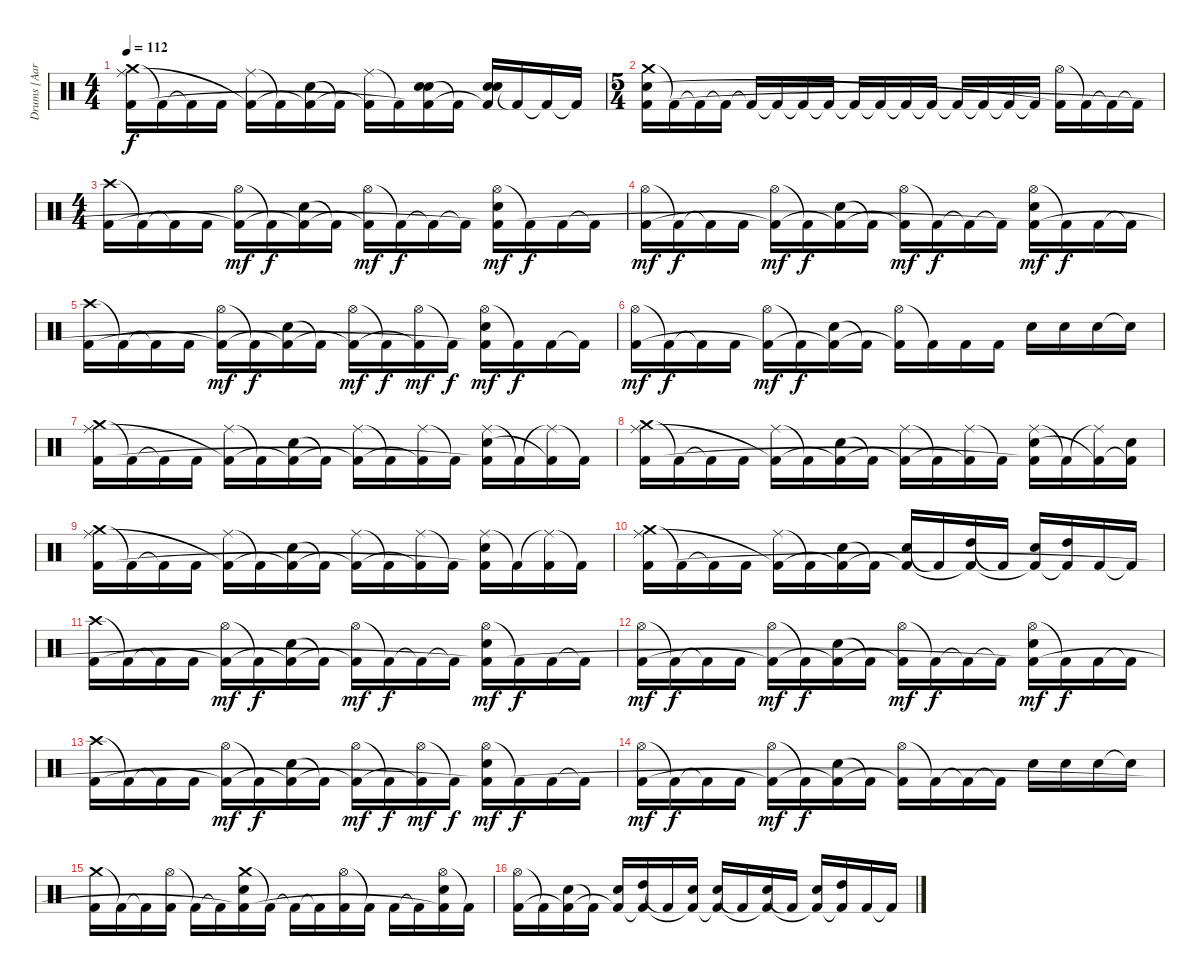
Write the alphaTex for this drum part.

\track ("Drums [Aaron Harris]" "Drums [Aar") {instrument percussion}
\staff {score}
\articulation defaults
\ts (4 4)
\tempo 112
\clef neutral
\ks c
("Crash medium (hit)" "Ride (middle)" "Kick (hit) 2").16{dy f} "Kick (hit) 2"{t}.16 "Kick (hit) 2"{t}.16 "Kick (hit) 2".16 ("Ride (middle)" "Kick (hit) 2"{t}).16 "Kick (hit) 2"{t}.16 ("Electric Snare (hit)" "Kick (hit) 2"{t}).16 "Kick (hit) 2"{t}.16 ("Ride (middle)" "Kick (hit) 2"{t}).16 "Kick (hit) 2"{t}.16 ("Electric Snare (hit)" "Electric Snare (hit)" "Kick (hit) 2"{t}).16 "Kick (hit) 2"{t}.16 ("Electric Snare (hit)" "Electric Snare (hit)" "Kick (hit) 2"{t}).16 "Kick (hit) 2"{t}.16 "Kick (hit) 2"{t}.16 "Kick (hit) 2"{t}.16 |
\ts (5 4)
("Crash medium (hit)" "Electric Snare (hit)" "Kick (hit) 2").16 "Kick (hit) 2"{t}.16 "Kick (hit) 2"{t}.16 "Kick (hit) 2"{t}.16 "Kick (hit) 2"{t}.16 "Kick (hit) 2"{t}.16 "Kick (hit) 2"{t}.16 "Kick (hit) 2"{t}.16 "Kick (hit) 2"{t}.16 "Kick (hit) 2"{t}.16 "Kick (hit) 2"{t}.16 "Kick (hit) 2"{t}.16 "Kick (hit) 2"{t}.16 "Kick (hit) 2"{t}.16 "Kick (hit) 2"{t}.16 "Kick (hit) 2"{t}.16 ("Hi-Hat (open)" "Kick (hit) 2"{t}).16 "Kick (hit) 2"{t}.16 "Kick (hit) 2"{t}.16 "Kick (hit) 2"{t}.16 |
\ts (4 4)
("Crash high (hit)" "Kick (hit) 2").16 "Kick (hit) 2"{t}.16 "Kick (hit) 2"{t}.16 "Kick (hit) 2".16 ("Hi-Hat (open)" "Kick (hit) 2"{t}).16{dy mf} "Kick (hit) 2"{t}.16{dy f} ("Electric Snare (hit)" "Kick (hit) 2"{t}).16 "Kick (hit) 2"{t}.16 ("Hi-Hat (open)" "Kick (hit) 2"{t}).16{dy mf} "Kick (hit) 2"{t}.16{dy f} "Kick (hit) 2"{t}.16 "Kick (hit) 2"{t}.16 ("Hi-Hat (open)" "Electric Snare (hit)" "Kick (hit) 2"{t}).16{dy mf} "Kick (hit) 2"{t}.16{dy f} "Kick (hit) 2".16 "Kick (hit) 2"{t}.16 |
("Hi-Hat (open)" "Kick (hit) 2").16{dy mf} "Kick (hit) 2"{t}.16{dy f} "Kick (hit) 2"{t}.16 "Kick (hit) 2".16 ("Hi-Hat (open)" "Kick (hit) 2"{t}).16{dy mf} "Kick (hit) 2"{t}.16{dy f} ("Electric Snare (hit)" "Kick (hit) 2"{t}).16 "Kick (hit) 2"{t}.16 ("Hi-Hat (open)" "Kick (hit) 2"{t}).16{dy mf} "Kick (hit) 2"{t}.16{dy f} "Kick (hit) 2"{t}.16 "Kick (hit) 2"{t}.16 ("Hi-Hat (open)" "Electric Snare (hit)" "Kick (hit) 2"{t}).16{dy mf} "Kick (hit) 2"{t}.16{dy f} "Kick (hit) 2".16 "Kick (hit) 2"{t}.16 |
("Crash high (hit)" "Kick (hit) 2").16 "Kick (hit) 2"{t}.16 "Kick (hit) 2"{t}.16 "Kick (hit) 2".16 ("Hi-Hat (open)" "Kick (hit) 2"{t}).16{dy mf} "Kick (hit) 2"{t}.16{dy f} ("Electric Snare (hit)" "Kick (hit) 2"{t}).16 "Kick (hit) 2"{t}.16 ("Hi-Hat (open)" "Kick (hit) 2"{t}).16{dy mf} "Kick (hit) 2"{t}.16{dy f} ("Hi-Hat (open)" "Kick (hit) 2"{t}).16{dy mf} "Kick (hit) 2"{t}.16{dy f} ("Hi-Hat (open)" "Electric Snare (hit)" "Kick (hit) 2"{t}).16{dy mf} "Kick (hit) 2"{t}.16{dy f} "Kick (hit) 2".16 "Kick (hit) 2"{t}.16 |
("Hi-Hat (open)" "Kick (hit) 2").16{dy mf} "Kick (hit) 2"{t}.16{dy f} "Kick (hit) 2"{t}.16 "Kick (hit) 2".16 ("Hi-Hat (open)" "Kick (hit) 2"{t}).16{dy mf} "Kick (hit) 2"{t}.16{dy f} ("Electric Snare (hit)" "Kick (hit) 2"{t}).16 "Kick (hit) 2"{t}.16 ("Hi-Hat (open)" "Kick (hit) 2"{t}).16 "Kick (hit) 2"{t}.16 "Kick (hit) 2".16 "Kick (hit) 2".16 "Electric Snare (hit)".16 "Electric Snare (hit)".16 "Electric Snare (hit)".16 "Electric Snare (hit)"{t}.16 |
("Crash medium (hit)" "Ride (middle)" "Kick (hit) 2").16 "Kick (hit) 2"{t}.16 "Kick (hit) 2"{t}.16 "Kick (hit) 2".16 ("Ride (middle)" "Kick (hit) 2"{t}).16 "Kick (hit) 2"{t}.16 ("Electric Snare (hit)" "Kick (hit) 2"{t}).16 "Kick (hit) 2"{t}.16 ("Ride (middle)" "Kick (hit) 2"{t}).16 "Kick (hit) 2"{t}.16 ("Ride (middle)" "Kick (hit) 2"{t}).16 "Kick (hit) 2"{t}.16 ("Ride (middle)" "Electric Snare (hit)" "Kick (hit) 2"{t}).16 "Kick (hit) 2"{t}.16 ("Ride (middle)"{t} "Kick (hit) 2"{t}).16 "Kick (hit) 2"{t}.16 |
("Crash medium (hit)" "Ride (middle)" "Kick (hit) 2").16 "Kick (hit) 2"{t}.16 "Kick (hit) 2"{t}.16 "Kick (hit) 2".16 ("Ride (middle)" "Kick (hit) 2"{t}).16 "Kick (hit) 2"{t}.16 ("Electric Snare (hit)" "Kick (hit) 2"{t}).16 "Kick (hit) 2"{t}.16 ("Ride (middle)" "Kick (hit) 2"{t}).16 "Kick (hit) 2"{t}.16 ("Ride (middle)" "Kick (hit) 2"{t}).16 "Kick (hit) 2"{t}.16 ("Ride (middle)" "Electric Snare (hit)" "Kick (hit) 2"{t}).16 "Kick (hit) 2"{t}.16 ("Ride (middle)"{t} "Kick (hit) 2"{t}).16 ("Electric Snare (hit)" "Kick (hit) 2"{t}).16 |
("Crash medium (hit)" "Ride (middle)" "Kick (hit) 2").16 "Kick (hit) 2"{t}.16 "Kick (hit) 2"{t}.16 "Kick (hit) 2".16 ("Ride (middle)" "Kick (hit) 2"{t}).16 "Kick (hit) 2"{t}.16 ("Electric Snare (hit)" "Kick (hit) 2"{t}).16 "Kick (hit) 2"{t}.16 ("Ride (middle)" "Kick (hit) 2"{t}).16 "Kick (hit) 2"{t}.16 ("Ride (middle)" "Kick (hit) 2"{t}).16 "Kick (hit) 2"{t}.16 ("Ride (middle)" "Electric Snare (hit)" "Kick (hit) 2"{t}).16 "Kick (hit) 2"{t}.16 ("Ride (middle)"{t} "Kick (hit) 2").16 "Kick (hit) 2"{t}.16 |
("Crash medium (hit)" "Ride (middle)" "Kick (hit) 2").16 "Kick (hit) 2"{t}.16 "Kick (hit) 2"{t}.16 "Kick (hit) 2".16 ("Ride (middle)" "Kick (hit) 2"{t}).16 "Kick (hit) 2"{t}.16 ("Electric Snare (hit)" "Kick (hit) 2"{t}).16 "Kick (hit) 2"{t}.16 ("Electric Snare (hit)" "Kick (hit) 2"{t}).16 "Kick (hit) 2"{t}.16 ("High Tom (hit)" "Kick (hit) 2"{t}).16 "Kick (hit) 2"{t}.16 ("Electric Snare (hit)" "Kick (hit) 2"{t}).16 ("High Tom (hit)" "Kick (hit) 2"{t}).16 "Kick (hit) 2".16 "Kick (hit) 2"{t}.16 |
("Crash high (hit)" "Kick (hit) 2").16 "Kick (hit) 2"{t}.16 "Kick (hit) 2"{t}.16 "Kick (hit) 2".16 ("Hi-Hat (open)" "Kick (hit) 2"{t}).16{dy mf} "Kick (hit) 2"{t}.16{dy f} ("Electric Snare (hit)" "Kick (hit) 2"{t}).16 "Kick (hit) 2"{t}.16 ("Hi-Hat (open)" "Kick (hit) 2"{t}).16{dy mf} "Kick (hit) 2"{t}.16{dy f} "Kick (hit) 2"{t}.16 "Kick (hit) 2"{t}.16 ("Hi-Hat (open)" "Electric Snare (hit)" "Kick (hit) 2"{t}).16{dy mf} "Kick (hit) 2"{t}.16{dy f} "Kick (hit) 2".16 "Kick (hit) 2"{t}.16 |
("Hi-Hat (open)" "Kick (hit) 2").16{dy mf} "Kick (hit) 2"{t}.16{dy f} "Kick (hit) 2"{t}.16 "Kick (hit) 2".16 ("Hi-Hat (open)" "Kick (hit) 2"{t}).16{dy mf} "Kick (hit) 2"{t}.16{dy f} ("Electric Snare (hit)" "Kick (hit) 2"{t}).16 "Kick (hit) 2"{t}.16 ("Hi-Hat (open)" "Kick (hit) 2"{t}).16{dy mf} "Kick (hit) 2"{t}.16{dy f} "Kick (hit) 2"{t}.16 "Kick (hit) 2"{t}.16 ("Hi-Hat (open)" "Electric Snare (hit)" "Kick (hit) 2"{t}).16{dy mf} "Kick (hit) 2"{t}.16{dy f} "Kick (hit) 2".16 "Kick (hit) 2"{t}.16 |
("Crash high (hit)" "Kick (hit) 2").16 "Kick (hit) 2"{t}.16 "Kick (hit) 2"{t}.16 "Kick (hit) 2".16 ("Hi-Hat (open)" "Kick (hit) 2"{t}).16{dy mf} "Kick (hit) 2"{t}.16{dy f} ("Electric Snare (hit)" "Kick (hit) 2"{t}).16 "Kick (hit) 2"{t}.16 ("Hi-Hat (open)" "Kick (hit) 2"{t}).16{dy mf} "Kick (hit) 2"{t}.16{dy f} ("Hi-Hat (open)" "Kick (hit) 2"{t}).16{dy mf} "Kick (hit) 2"{t}.16{dy f} ("Hi-Hat (open)" "Electric Snare (hit)" "Kick (hit) 2"{t}).16{dy mf} "Kick (hit) 2"{t}.16{dy f} "Kick (hit) 2".16 "Kick (hit) 2"{t}.16 |
("Hi-Hat (open)" "Kick (hit) 2").16{dy mf} "Kick (hit) 2"{t}.16{dy f} "Kick (hit) 2"{t}.16 "Kick (hit) 2".16 ("Hi-Hat (open)" "Kick (hit) 2"{t}).16{dy mf} "Kick (hit) 2"{t}.16{dy f} ("Electric Snare (hit)" "Kick (hit) 2"{t}).16 "Kick (hit) 2"{t}.16 ("Hi-Hat (open)" "Kick (hit) 2"{t}).16 "Kick (hit) 2"{t}.16 "Kick (hit) 2"{t}.16 "Kick (hit) 2"{t}.16 "Electric Snare (hit)".16 "Electric Snare (hit)".16 "Electric Snare (hit)".16 "Electric Snare (hit)"{t}.16 |
("Crash medium (hit)" "Kick (hit) 2").16 "Kick (hit) 2"{t}.16 "Kick (hit) 2"{t}.16 ("Hi-Hat (open)" "Kick (hit) 2").16 "Kick (hit) 2"{t}.16 "Kick (hit) 2"{t}.16 ("Crash medium (hit)" "Electric Snare (hit)" "Kick (hit) 2"{t}).16 "Kick (hit) 2"{t}.16 "Kick (hit) 2"{t}.16 "Kick (hit) 2"{t}.16 ("Hi-Hat (open)" "Kick (hit) 2").16 "Kick (hit) 2"{t}.16 "Kick (hit) 2".16 "Kick (hit) 2"{t}.16 ("Hi-Hat (open)" "Electric Snare (hit)" "Kick (hit) 2"{t}).16 "Kick (hit) 2"{t}.16 |
("Hi-Hat (open)" "Kick (hit) 2").16 "Kick (hit) 2"{t}.16 ("Electric Snare (hit)" "Kick (hit) 2"{t}).16 "Kick (hit) 2"{t}.16 ("Electric Snare (hit)" "Kick (hit) 2"{t}).16 ("High Tom (hit)" "Kick (hit) 2"{t}).16 "Kick (hit) 2"{t}.16 ("Electric Snare (hit)" "Kick (hit) 2"{t}).16 ("Electric Snare (hit)" "Kick (hit) 2"{t}).16 "Kick (hit) 2"{t}.16 ("Electric Snare (hit)" "Kick (hit) 2"{t}).16 "Kick (hit) 2"{t}.16 ("Electric Snare (hit)" "Kick (hit) 2"{t}).16 ("High Tom (hit)" "Kick (hit) 2"{t}).16 "Kick (hit) 2".16 "Kick (hit) 2"{t}.16
